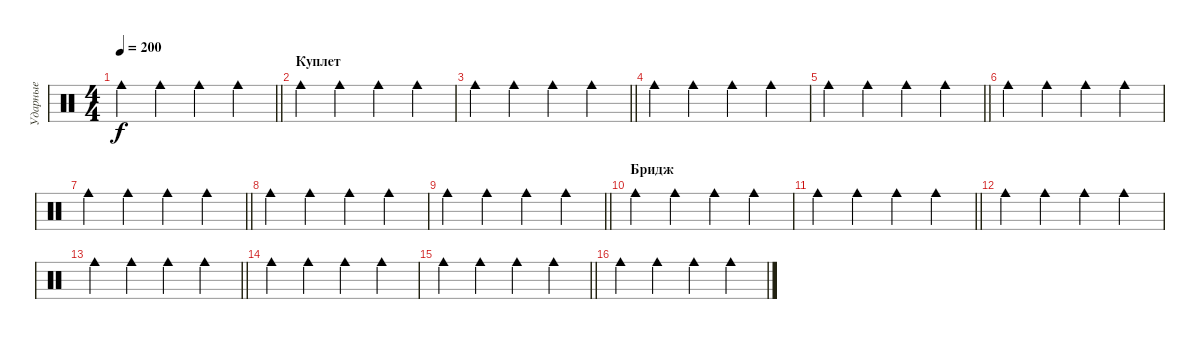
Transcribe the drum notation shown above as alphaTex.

\track ("Ударные" "Ударные") {instrument percussion}
\staff {score}
\articulation defaults
\ts (4 4)
\tempo 200
\clef neutral
\barLineRight lightlight
\ks c "Cowbell medium (hit)".4{dy f} "Cowbell medium (hit)".4 "Cowbell medium (hit)".4 "Cowbell medium (hit)".4
|
\section ("" "Куплет")
"Cowbell medium (hit)".4 "Cowbell medium (hit)".4 "Cowbell medium (hit)".4 "Cowbell medium (hit)".4 |
\barLineRight lightlight "Cowbell medium (hit)".4 "Cowbell medium (hit)".4 "Cowbell medium (hit)".4 "Cowbell medium (hit)".4
|
"Cowbell medium (hit)".4 "Cowbell medium (hit)".4 "Cowbell medium (hit)".4 "Cowbell medium (hit)".4 |
\barLineRight lightlight "Cowbell medium (hit)".4 "Cowbell medium (hit)".4 "Cowbell medium (hit)".4 "Cowbell medium (hit)".4
|
"Cowbell medium (hit)".4 "Cowbell medium (hit)".4 "Cowbell medium (hit)".4 "Cowbell medium (hit)".4 |
\barLineRight lightlight "Cowbell medium (hit)".4 "Cowbell medium (hit)".4 "Cowbell medium (hit)".4 "Cowbell medium (hit)".4
|
"Cowbell medium (hit)".4 "Cowbell medium (hit)".4 "Cowbell medium (hit)".4 "Cowbell medium (hit)".4 |
\barLineRight lightlight "Cowbell medium (hit)".4 "Cowbell medium (hit)".4 "Cowbell medium (hit)".4 "Cowbell medium (hit)".4
|
\section ("" "Бридж")
"Cowbell medium (hit)".4 "Cowbell medium (hit)".4 "Cowbell medium (hit)".4 "Cowbell medium (hit)".4 |
\barLineRight lightlight "Cowbell medium (hit)".4 "Cowbell medium (hit)".4 "Cowbell medium (hit)".4 "Cowbell medium (hit)".4
|
"Cowbell medium (hit)".4 "Cowbell medium (hit)".4 "Cowbell medium (hit)".4 "Cowbell medium (hit)".4 |
\barLineRight lightlight "Cowbell medium (hit)".4 "Cowbell medium (hit)".4 "Cowbell medium (hit)".4 "Cowbell medium (hit)".4
|
"Cowbell medium (hit)".4 "Cowbell medium (hit)".4 "Cowbell medium (hit)".4 "Cowbell medium (hit)".4 |
\barLineRight lightlight "Cowbell medium (hit)".4 "Cowbell medium (hit)".4 "Cowbell medium (hit)".4 "Cowbell medium (hit)".4
|
"Cowbell medium (hit)".4 "Cowbell medium (hit)".4 "Cowbell medium (hit)".4 "Cowbell medium (hit)".4
